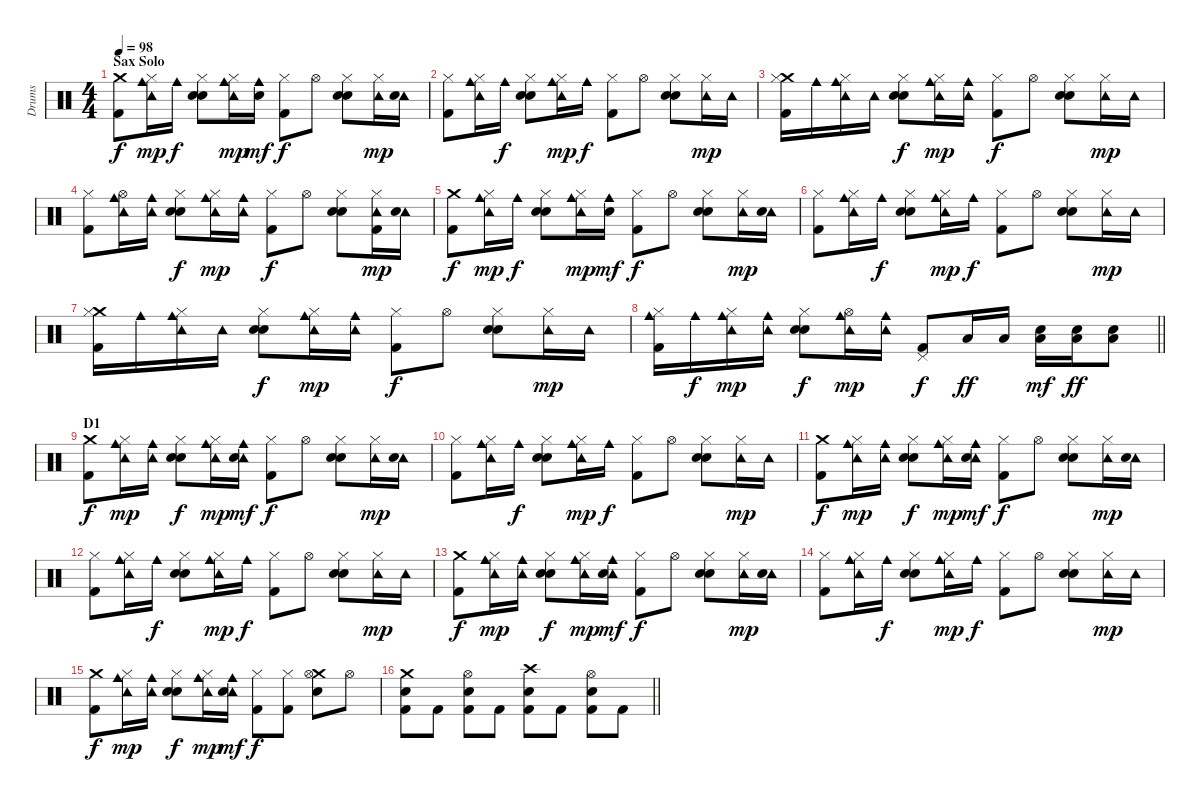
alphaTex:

\track ("Drums" "Drums") {instrument percussion}
\staff {score}
\articulation defaults
\ts (4 4)
\section ("" "Sax Solo")
\tempo 98
\clef neutral
\ks c
("Crash medium (hit)" "Kick (hit) 2").8{dy f} ("Cowbell medium (hit)" "Tambourine (hit)" "Hi-Hat (closed)").16{dy mp} "Cowbell medium (hit)".16{dy f} ("Hand Clap (hit)" "Hi-Hat (closed)" "Electric Snare (hit)").8 ("Cowbell medium (hit)" "Tambourine (hit)" "Hi-Hat (closed)").16{dy mp} ("Cowbell medium (hit)" "Electric Snare (hit)").16{dy mf} ("Hi-Hat (closed)" "Kick (hit) 2").8{dy f} "Hi-Hat (open)".8 ("Hand Clap (hit)" "Hi-Hat (closed)" "Electric Snare (hit)").8 ("Tambourine (hit)" "Hi-Hat (closed)").16{dy mp} ("Tambourine (hit)" "Electric Snare (hit)").16 |
("Hi-Hat (closed)" "Kick (hit) 2").8 ("Cowbell medium (hit)" "Tambourine (hit)" "Hi-Hat (closed)").16 "Cowbell medium (hit)".16{dy f} ("Hand Clap (hit)" "Hi-Hat (closed)" "Electric Snare (hit)").8 ("Cowbell medium (hit)" "Tambourine (hit)" "Hi-Hat (closed)").16{dy mp} "Cowbell medium (hit)".16{dy f} ("Hi-Hat (closed)" "Kick (hit) 2").8 "Hi-Hat (open)".8 ("Hand Clap (hit)" "Hi-Hat (closed)" "Electric Snare (hit)").8 ("Tambourine (hit)" "Hi-Hat (closed)").16{dy mp} "Tambourine (hit)".16 |
("Crash medium (hit)" "Hi-Hat (closed)" "Kick (hit) 2").16 "Cowbell medium (hit)".16 ("Cowbell medium (hit)" "Tambourine (hit)" "Hi-Hat (closed)").16 "Tambourine (hit)".16 ("Hand Clap (hit)" "Hi-Hat (closed)" "Electric Snare (hit)").8{dy f} ("Cowbell medium (hit)" "Tambourine (hit)" "Hi-Hat (closed)").16{dy mp} ("Cowbell medium (hit)" "Tambourine (hit)").16 ("Hi-Hat (closed)" "Kick (hit) 2").8{dy f} "Hi-Hat (open)".8 ("Hand Clap (hit)" "Hi-Hat (closed)" "Electric Snare (hit)").8 ("Tambourine (hit)" "Hi-Hat (closed)").16{dy mp} "Tambourine (hit)".16 |
("Hi-Hat (closed)" "Kick (hit) 2").8 ("Cowbell medium (hit)" "Tambourine (hit)" "Hi-Hat (open)").16 ("Cowbell medium (hit)" "Tambourine (hit)").16 ("Hand Clap (hit)" "Hi-Hat (closed)" "Electric Snare (hit)").8{dy f} ("Cowbell medium (hit)" "Tambourine (hit)" "Hi-Hat (closed)").16{dy mp} ("Cowbell medium (hit)" "Tambourine (hit)").16 ("Hi-Hat (closed)" "Kick (hit) 2").8{dy f} "Hi-Hat (open)".8 ("Hand Clap (hit)" "Hi-Hat (closed)" "Electric Snare (hit)").8 ("Tambourine (hit)" "Hi-Hat (closed)" "Kick (hit) 2").16{dy mp} ("Tambourine (hit)" "Electric Snare (hit)").16 |
("Crash medium (hit)" "Kick (hit) 2").8{dy f} ("Cowbell medium (hit)" "Tambourine (hit)" "Hi-Hat (closed)").16{dy mp} "Cowbell medium (hit)".16{dy f} ("Hand Clap (hit)" "Hi-Hat (closed)" "Electric Snare (hit)").8 ("Cowbell medium (hit)" "Tambourine (hit)" "Hi-Hat (closed)").16{dy mp} ("Cowbell medium (hit)" "Electric Snare (hit)").16{dy mf} ("Hi-Hat (closed)" "Kick (hit) 2").8{dy f} "Hi-Hat (open)".8 ("Hand Clap (hit)" "Hi-Hat (closed)" "Electric Snare (hit)").8 ("Tambourine (hit)" "Hi-Hat (closed)").16{dy mp} ("Tambourine (hit)" "Electric Snare (hit)").16 |
("Hi-Hat (closed)" "Kick (hit) 2").8 ("Cowbell medium (hit)" "Tambourine (hit)" "Hi-Hat (closed)").16 "Cowbell medium (hit)".16{dy f} ("Hand Clap (hit)" "Hi-Hat (closed)" "Electric Snare (hit)").8 ("Cowbell medium (hit)" "Tambourine (hit)" "Hi-Hat (closed)").16{dy mp} "Cowbell medium (hit)".16{dy f} ("Hi-Hat (closed)" "Kick (hit) 2").8 "Hi-Hat (open)".8 ("Hand Clap (hit)" "Hi-Hat (closed)" "Electric Snare (hit)").8 ("Tambourine (hit)" "Hi-Hat (closed)").16{dy mp} "Tambourine (hit)".16 |
("Crash medium (hit)" "Hi-Hat (closed)" "Kick (hit) 2").16 "Cowbell medium (hit)".16 ("Cowbell medium (hit)" "Tambourine (hit)" "Hi-Hat (closed)").16 "Tambourine (hit)".16 ("Hand Clap (hit)" "Hi-Hat (closed)" "Electric Snare (hit)").8{dy f} ("Cowbell medium (hit)" "Tambourine (hit)" "Hi-Hat (closed)").16{dy mp} ("Cowbell medium (hit)" "Tambourine (hit)").16 ("Hi-Hat (closed)" "Kick (hit) 2").8{dy f} "Hi-Hat (open)".8 ("Hand Clap (hit)" "Hi-Hat (closed)" "Electric Snare (hit)").8 ("Tambourine (hit)" "Hi-Hat (closed)").16{dy mp} "Tambourine (hit)".16 |
\barLineRight lightlight
("Cowbell medium (hit)" "Hi-Hat (closed)" "Kick (hit) 2").16 "Cowbell medium (hit)".16{dy f} ("Cowbell medium (hit)" "Tambourine (hit)" "Hi-Hat (closed)").16{dy mp} ("Cowbell medium (hit)" "Tambourine (hit)").16 ("Hand Clap (hit)" "Hi-Hat (closed)" "Electric Snare (hit)").8{dy f} ("Cowbell medium (hit)" "Tambourine (hit)" "Hi-Hat (open)").16{dy mp} ("Cowbell medium (hit)" "Tambourine (hit)").16 ("Pedal Hi-Hat (hit)" "Kick (hit) 2").8{dy f} "Low Tom (hit)".16{dy ff} "Low Tom (hit)".16 ("Low Tom (hit)" "Electric Snare (hit)").16{dy mf} ("Low Tom (hit)" "Electric Snare (hit)").16{dy ff} ("Low Tom (hit)" "Electric Snare (hit)").8 |
\section ("" "D1")
("Crash medium (hit)" "Kick (hit) 2").8{dy f} ("Cowbell medium (hit)" "Tambourine (hit)" "Hi-Hat (closed)").16{dy mp} ("Cowbell medium (hit)" "Tambourine (hit)").16 ("Hand Clap (hit)" "Hi-Hat (closed)" "Electric Snare (hit)").8{dy f} ("Cowbell medium (hit)" "Tambourine (hit)" "Hi-Hat (closed)").16{dy mp} ("Cowbell medium (hit)" "Tambourine (hit)" "Electric Snare (hit)").16{dy mf} ("Hi-Hat (closed)" "Kick (hit) 2").8{dy f} "Hi-Hat (open)".8 ("Hand Clap (hit)" "Hi-Hat (closed)" "Electric Snare (hit)").8 ("Tambourine (hit)" "Hi-Hat (closed)").16{dy mp} ("Tambourine (hit)" "Electric Snare (hit)").16 |
("Hi-Hat (closed)" "Kick (hit) 2").8 ("Cowbell medium (hit)" "Tambourine (hit)" "Hi-Hat (closed)").16 "Cowbell medium (hit)".16{dy f} ("Hand Clap (hit)" "Hi-Hat (closed)" "Electric Snare (hit)").8 ("Cowbell medium (hit)" "Tambourine (hit)" "Hi-Hat (closed)").16{dy mp} "Cowbell medium (hit)".16{dy f} ("Hi-Hat (closed)" "Kick (hit) 2").8 "Hi-Hat (open)".8 ("Hand Clap (hit)" "Hi-Hat (closed)" "Electric Snare (hit)").8 ("Tambourine (hit)" "Hi-Hat (closed)").16{dy mp} "Tambourine (hit)".16 |
("Crash medium (hit)" "Kick (hit) 2").8{dy f} ("Cowbell medium (hit)" "Tambourine (hit)" "Hi-Hat (closed)").16{dy mp} ("Cowbell medium (hit)" "Tambourine (hit)").16 ("Hand Clap (hit)" "Hi-Hat (closed)" "Electric Snare (hit)").8{dy f} ("Cowbell medium (hit)" "Tambourine (hit)" "Hi-Hat (closed)").16{dy mp} ("Cowbell medium (hit)" "Tambourine (hit)" "Electric Snare (hit)").16{dy mf} ("Hi-Hat (closed)" "Kick (hit) 2").8{dy f} "Hi-Hat (open)".8 ("Hand Clap (hit)" "Hi-Hat (closed)" "Electric Snare (hit)").8 ("Tambourine (hit)" "Hi-Hat (closed)").16{dy mp} ("Tambourine (hit)" "Electric Snare (hit)").16 |
("Hi-Hat (closed)" "Kick (hit) 2").8 ("Cowbell medium (hit)" "Tambourine (hit)" "Hi-Hat (closed)").16 "Cowbell medium (hit)".16{dy f} ("Hand Clap (hit)" "Hi-Hat (closed)" "Electric Snare (hit)").8 ("Cowbell medium (hit)" "Tambourine (hit)" "Hi-Hat (closed)").16{dy mp} "Cowbell medium (hit)".16{dy f} ("Hi-Hat (closed)" "Kick (hit) 2").8 "Hi-Hat (open)".8 ("Hand Clap (hit)" "Hi-Hat (closed)" "Electric Snare (hit)").8 ("Tambourine (hit)" "Hi-Hat (closed)").16{dy mp} "Tambourine (hit)".16 |
("Crash medium (hit)" "Kick (hit) 2").8{dy f} ("Cowbell medium (hit)" "Tambourine (hit)" "Hi-Hat (closed)").16{dy mp} ("Cowbell medium (hit)" "Tambourine (hit)").16 ("Hand Clap (hit)" "Hi-Hat (closed)" "Electric Snare (hit)").8{dy f} ("Cowbell medium (hit)" "Tambourine (hit)" "Hi-Hat (closed)").16{dy mp} ("Cowbell medium (hit)" "Tambourine (hit)" "Electric Snare (hit)").16{dy mf} ("Hi-Hat (closed)" "Kick (hit) 2").8{dy f} "Hi-Hat (open)".8 ("Hand Clap (hit)" "Hi-Hat (closed)" "Electric Snare (hit)").8 ("Tambourine (hit)" "Hi-Hat (closed)").16{dy mp} ("Tambourine (hit)" "Electric Snare (hit)").16 |
("Hi-Hat (closed)" "Kick (hit) 2").8 ("Cowbell medium (hit)" "Tambourine (hit)" "Hi-Hat (closed)").16 "Cowbell medium (hit)".16{dy f} ("Hand Clap (hit)" "Hi-Hat (closed)" "Electric Snare (hit)").8 ("Cowbell medium (hit)" "Tambourine (hit)" "Hi-Hat (closed)").16{dy mp} "Cowbell medium (hit)".16{dy f} ("Hi-Hat (closed)" "Kick (hit) 2").8 "Hi-Hat (open)".8 ("Hand Clap (hit)" "Hi-Hat (closed)" "Electric Snare (hit)").8 ("Tambourine (hit)" "Hi-Hat (closed)").16{dy mp} "Tambourine (hit)".16 |
("Crash medium (hit)" "Kick (hit) 2").8{dy f} ("Cowbell medium (hit)" "Tambourine (hit)" "Hi-Hat (closed)").16{dy mp} ("Cowbell medium (hit)" "Tambourine (hit)").16 ("Hand Clap (hit)" "Hi-Hat (closed)" "Electric Snare (hit)").8{dy f} ("Cowbell medium (hit)" "Tambourine (hit)" "Hi-Hat (closed)").16{dy mp} ("Cowbell medium (hit)" "Tambourine (hit)" "Electric Snare (hit)").16{dy mf} ("Hi-Hat (closed)" "Kick (hit) 2").8{dy f} ("Hi-Hat (closed)" "Kick (hit) 2").8 ("Crash medium (hit)" "Hi-Hat (open)" "Electric Snare (hit)").8 "Hi-Hat (open)".8 |
\barLineRight lightlight
("Crash medium (hit)" "Electric Snare (hit)" "Kick (hit) 2").8 "Kick (hit) 2".8 ("Hi-Hat (open)" "Electric Snare (hit)" "Kick (hit) 2").8 "Kick (hit) 2".8 ("Crash high (hit)" "Electric Snare (hit)" "Kick (hit) 2").8 "Kick (hit) 2".8 ("Hi-Hat (open)" "Electric Snare (hit)" "Kick (hit) 2").8 "Kick (hit) 2".8
